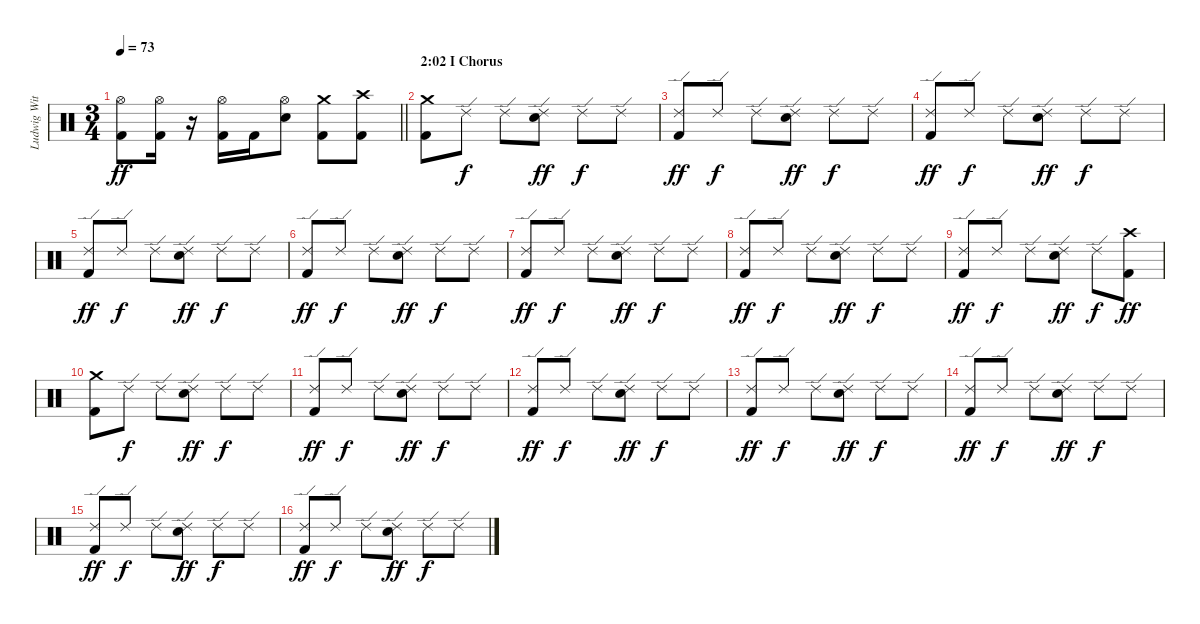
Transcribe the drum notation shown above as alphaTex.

\track ("Ludwig Witt (Drums)" "Ludwig Wit") {instrument percussion}
\staff
\articulation defaults
\ts (3 4)
\tempo 73
\clef neutral
\barLineRight lightlight
\ks c
("Hi-Hat (open)" "Kick (hit) 2").8{dy ff} ("Hi-Hat (open)" "Kick (hit) 2").16 r.16 ("Hi-Hat (open)" "Kick (hit) 2").16 "Kick (hit) 2".16 ("Hi-Hat (open)" "Electric Snare (hit)").8 ("Crash medium (hit)" "Kick (hit) 2").8 ("Crash high (hit)" "Kick (hit) 2").8 |
\section ("" "2:02 I Chorus")
("Crash medium (hit)" "Kick (hit) 2").8 "Ride (edge) 2".8{dy f} "Ride (edge) 2".8 ("Ride (edge) 2" "Electric Snare (hit)").8{dy ff} "Ride (edge) 2".8{dy f} "Ride (edge) 2".8 |
("Ride (edge) 2" "Kick (hit) 2").8{dy ff} "Ride (edge) 2".8{dy f} "Ride (edge) 2".8 ("Ride (edge) 2" "Electric Snare (hit)").8{dy ff} "Ride (edge) 2".8{dy f} "Ride (edge) 2".8 |
("Ride (edge) 2" "Kick (hit) 2").8{dy ff} "Ride (edge) 2".8{dy f} "Ride (edge) 2".8 ("Ride (edge) 2" "Electric Snare (hit)").8{dy ff} "Ride (edge) 2".8{dy f} "Ride (edge) 2".8 |
("Ride (edge) 2" "Kick (hit) 2").8{dy ff} "Ride (edge) 2".8{dy f} "Ride (edge) 2".8 ("Ride (edge) 2" "Electric Snare (hit)").8{dy ff} "Ride (edge) 2".8{dy f} "Ride (edge) 2".8 |
("Ride (edge) 2" "Kick (hit) 2").8{dy ff} "Ride (edge) 2".8{dy f} "Ride (edge) 2".8 ("Ride (edge) 2" "Electric Snare (hit)").8{dy ff} "Ride (edge) 2".8{dy f} "Ride (edge) 2".8 |
("Ride (edge) 2" "Kick (hit) 2").8{dy ff} "Ride (edge) 2".8{dy f} "Ride (edge) 2".8 ("Ride (edge) 2" "Electric Snare (hit)").8{dy ff} "Ride (edge) 2".8{dy f} "Ride (edge) 2".8 |
("Ride (edge) 2" "Kick (hit) 2").8{dy ff} "Ride (edge) 2".8{dy f} "Ride (edge) 2".8 ("Ride (edge) 2" "Electric Snare (hit)").8{dy ff} "Ride (edge) 2".8{dy f} "Ride (edge) 2".8 |
("Ride (edge) 2" "Kick (hit) 2").8{dy ff} "Ride (edge) 2".8{dy f} "Ride (edge) 2".8 ("Ride (edge) 2" "Electric Snare (hit)").8{dy ff} "Ride (edge) 2".8{dy f} ("Crash high (hit)" "Kick (hit) 2").8{dy ff} |
("Crash medium (hit)" "Kick (hit) 2").8 "Ride (edge) 2".8{dy f} "Ride (edge) 2".8 ("Ride (edge) 2" "Electric Snare (hit)").8{dy ff} "Ride (edge) 2".8{dy f} "Ride (edge) 2".8 |
("Ride (edge) 2" "Kick (hit) 2").8{dy ff} "Ride (edge) 2".8{dy f} "Ride (edge) 2".8 ("Ride (edge) 2" "Electric Snare (hit)").8{dy ff} "Ride (edge) 2".8{dy f} "Ride (edge) 2".8 |
("Ride (edge) 2" "Kick (hit) 2").8{dy ff} "Ride (edge) 2".8{dy f} "Ride (edge) 2".8 ("Ride (edge) 2" "Electric Snare (hit)").8{dy ff} "Ride (edge) 2".8{dy f} "Ride (edge) 2".8 |
("Ride (edge) 2" "Kick (hit) 2").8{dy ff} "Ride (edge) 2".8{dy f} "Ride (edge) 2".8 ("Ride (edge) 2" "Electric Snare (hit)").8{dy ff} "Ride (edge) 2".8{dy f} "Ride (edge) 2".8 |
("Ride (edge) 2" "Kick (hit) 2").8{dy ff} "Ride (edge) 2".8{dy f} "Ride (edge) 2".8 ("Ride (edge) 2" "Electric Snare (hit)").8{dy ff} "Ride (edge) 2".8{dy f} "Ride (edge) 2".8 |
("Ride (edge) 2" "Kick (hit) 2").8{dy ff} "Ride (edge) 2".8{dy f} "Ride (edge) 2".8 ("Ride (edge) 2" "Electric Snare (hit)").8{dy ff} "Ride (edge) 2".8{dy f} "Ride (edge) 2".8 |
("Ride (edge) 2" "Kick (hit) 2").8{dy ff} "Ride (edge) 2".8{dy f} "Ride (edge) 2".8 ("Ride (edge) 2" "Electric Snare (hit)").8{dy ff} "Ride (edge) 2".8{dy f} "Ride (edge) 2".8
